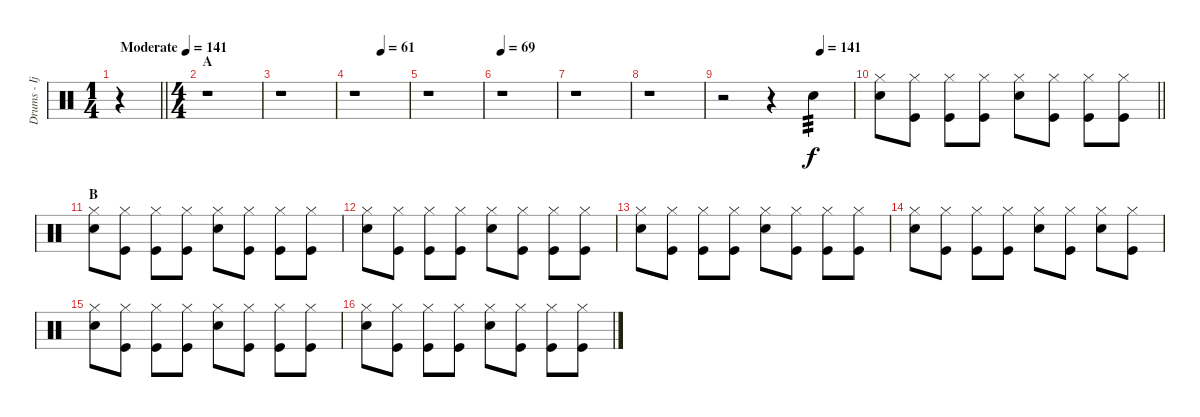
\track ("Drums - Ijichi" "Drums - Ij") {instrument percussion}
\staff {score}
\articulation defaults
\ts (1 4)
\tempo (141 "Moderate")
\tempo 69
\tempo (141 "Moderate")
\clef neutral
\barLineRight lightlight
\ks c
r.4{dy f} |
\ts (4 4)
\section ("" "A")
r.1 |
r.1 |
\tempo (61 0.5)
r.1 |
r.1 |
\tempo 69
r.1 |
r.1 |
r.1 |
\tempo (141 0.75)
r.2 r.4 "Electric Snare (hit)".4{tp 3} |
\barLineRight lightlight
("Hi-Hat (closed)" "Electric Snare (hit)").8 ("Hi-Hat (closed)" "Kick (hit)").8 ("Hi-Hat (closed)" "Kick (hit)").8 ("Hi-Hat (closed)" "Kick (hit)").8 ("Hi-Hat (closed)" "Electric Snare (hit)").8 ("Hi-Hat (closed)" "Kick (hit)").8 ("Hi-Hat (closed)" "Kick (hit)").8 ("Hi-Hat (closed)" "Kick (hit)").8 |
\section ("" "B")
("Hi-Hat (closed)" "Electric Snare (hit)").8 ("Hi-Hat (closed)" "Kick (hit)").8 ("Hi-Hat (closed)" "Kick (hit)").8 ("Hi-Hat (closed)" "Kick (hit)").8 ("Hi-Hat (closed)" "Electric Snare (hit)").8 ("Hi-Hat (closed)" "Kick (hit)").8 ("Hi-Hat (closed)" "Kick (hit)").8 ("Hi-Hat (closed)" "Kick (hit)").8 |
("Hi-Hat (closed)" "Electric Snare (hit)").8 ("Hi-Hat (closed)" "Kick (hit)").8 ("Hi-Hat (closed)" "Kick (hit)").8 ("Hi-Hat (closed)" "Kick (hit)").8 ("Hi-Hat (closed)" "Electric Snare (hit)").8 ("Hi-Hat (closed)" "Kick (hit)").8 ("Hi-Hat (closed)" "Kick (hit)").8 ("Hi-Hat (closed)" "Kick (hit)").8 |
("Hi-Hat (closed)" "Electric Snare (hit)").8 ("Hi-Hat (closed)" "Kick (hit)").8 ("Hi-Hat (closed)" "Kick (hit)").8 ("Hi-Hat (closed)" "Kick (hit)").8 ("Hi-Hat (closed)" "Electric Snare (hit)").8 ("Hi-Hat (closed)" "Kick (hit)").8 ("Hi-Hat (closed)" "Kick (hit)").8 ("Hi-Hat (closed)" "Kick (hit)").8 |
("Hi-Hat (closed)" "Electric Snare (hit)").8 ("Hi-Hat (closed)" "Kick (hit)").8 ("Hi-Hat (closed)" "Kick (hit)").8 ("Hi-Hat (closed)" "Kick (hit)").8 ("Hi-Hat (closed)" "Electric Snare (hit)").8 ("Hi-Hat (closed)" "Kick (hit)").8 ("Hi-Hat (closed)" "Electric Snare (hit)").8 ("Hi-Hat (closed)" "Kick (hit)").8 |
("Hi-Hat (closed)" "Electric Snare (hit)").8 ("Hi-Hat (closed)" "Kick (hit)").8 ("Hi-Hat (closed)" "Kick (hit)").8 ("Hi-Hat (closed)" "Kick (hit)").8 ("Hi-Hat (closed)" "Electric Snare (hit)").8 ("Hi-Hat (closed)" "Kick (hit)").8 ("Hi-Hat (closed)" "Kick (hit)").8 ("Hi-Hat (closed)" "Kick (hit)").8 |
("Hi-Hat (closed)" "Electric Snare (hit)").8 ("Hi-Hat (closed)" "Kick (hit)").8 ("Hi-Hat (closed)" "Kick (hit)").8 ("Hi-Hat (closed)" "Kick (hit)").8 ("Hi-Hat (closed)" "Electric Snare (hit)").8 ("Hi-Hat (closed)" "Kick (hit)").8 ("Hi-Hat (closed)" "Kick (hit)").8 ("Hi-Hat (closed)" "Kick (hit)").8
